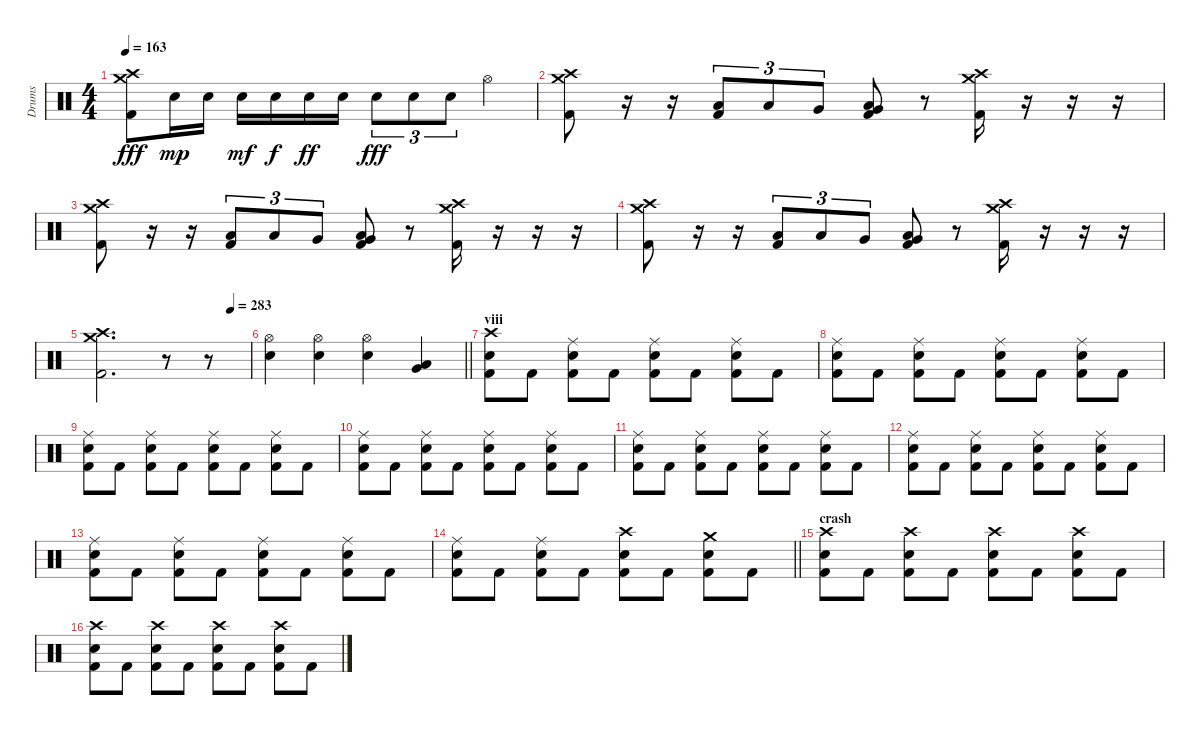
\track ("Drums" "Drums") {instrument percussion}
\staff {score}
\articulation defaults
\ts (4 4)
\tempo 163
\clef neutral
\ks c
("Crash high (hit)" "Crash medium (hit)" "Kick (hit) 2").8{dy fff} "Electric Snare (hit)".16{dy mp} "Electric Snare (hit)".16 "Electric Snare (hit)".16{dy mf} "Electric Snare (hit)".16{dy f} "Electric Snare (hit)".16{dy ff} "Electric Snare (hit)".16 "Electric Snare (hit)".8{tu (3 2) dy fff} "Electric Snare (hit)".8{tu (3 2)} "Electric Snare (hit)".8{tu (3 2)} "Hi-Hat (open)".4 |
("Crash high (hit)" "Crash medium (hit)" "Kick (hit) 2").8 r.16 r.16 ("Low Tom (hit)" "Kick (hit) 2").8{tu (3 2)} "Low Tom (hit)".8{tu (3 2)} "Very Low Tom (hit)".8{tu (3 2)} ("Low Floor Tom (hit)" "Very Low Tom (hit)" "Kick (hit) 2").8 r.8 ("Crash high (hit)" "Crash medium (hit)" "Kick (hit) 2").16 r.16 r.16 r.16 |
("Crash high (hit)" "Crash medium (hit)" "Kick (hit) 2").8 r.16 r.16 ("Low Tom (hit)" "Kick (hit) 2").8{tu (3 2)} "Low Tom (hit)".8{tu (3 2)} "Very Low Tom (hit)".8{tu (3 2)} ("Low Floor Tom (hit)" "Very Low Tom (hit)" "Kick (hit) 2").8 r.8 ("Crash high (hit)" "Crash medium (hit)" "Kick (hit) 2").16 r.16 r.16 r.16 |
("Crash high (hit)" "Crash medium (hit)" "Kick (hit) 2").8 r.16 r.16 ("Low Tom (hit)" "Kick (hit) 2").8{tu (3 2)} "Low Tom (hit)".8{tu (3 2)} "Very Low Tom (hit)".8{tu (3 2)} ("Low Floor Tom (hit)" "Very Low Tom (hit)" "Kick (hit) 2").8 r.8 ("Crash high (hit)" "Crash medium (hit)" "Kick (hit) 2").16 r.16 r.16 r.16 |
\tempo (283 0.875)
("Crash high (hit)" "Crash medium (hit)" "Kick (hit) 2").2{d} r.8 r.8 |
\barLineRight lightlight
("Hi-Hat (open)" "Electric Snare (hit)").4 ("Hi-Hat (open)" "Electric Snare (hit)").4 ("Hi-Hat (open)" "Electric Snare (hit)").4 ("Low Tom (hit)" "Very Low Tom (hit)").4 |
\section ("" "viii")
("Crash high (hit)" "Electric Snare (hit)" "Kick (hit) 2").8 "Kick (hit) 2".8 ("Ride (middle)" "Electric Snare (hit)" "Kick (hit) 2").8 "Kick (hit) 2".8 ("Ride (middle)" "Electric Snare (hit)" "Kick (hit) 2").8 "Kick (hit) 2".8 ("Ride (middle)" "Electric Snare (hit)" "Kick (hit) 2").8 "Kick (hit) 2".8 |
("Ride (middle)" "Electric Snare (hit)" "Kick (hit) 2").8 "Kick (hit) 2".8 ("Ride (middle)" "Electric Snare (hit)" "Kick (hit) 2").8 "Kick (hit) 2".8 ("Ride (middle)" "Electric Snare (hit)" "Kick (hit) 2").8 "Kick (hit) 2".8 ("Ride (middle)" "Electric Snare (hit)" "Kick (hit) 2").8 "Kick (hit) 2".8 |
("Ride (middle)" "Electric Snare (hit)" "Kick (hit) 2").8 "Kick (hit) 2".8 ("Ride (middle)" "Electric Snare (hit)" "Kick (hit) 2").8 "Kick (hit) 2".8 ("Ride (middle)" "Electric Snare (hit)" "Kick (hit) 2").8 "Kick (hit) 2".8 ("Ride (middle)" "Electric Snare (hit)" "Kick (hit) 2").8 "Kick (hit) 2".8 |
("Ride (middle)" "Electric Snare (hit)" "Kick (hit) 2").8 "Kick (hit) 2".8 ("Ride (middle)" "Electric Snare (hit)" "Kick (hit) 2").8 "Kick (hit) 2".8 ("Ride (middle)" "Electric Snare (hit)" "Kick (hit) 2").8 "Kick (hit) 2".8 ("Ride (middle)" "Electric Snare (hit)" "Kick (hit) 2").8 "Kick (hit) 2".8 |
("Ride (middle)" "Electric Snare (hit)" "Kick (hit) 2").8 "Kick (hit) 2".8 ("Ride (middle)" "Electric Snare (hit)" "Kick (hit) 2").8 "Kick (hit) 2".8 ("Ride (middle)" "Electric Snare (hit)" "Kick (hit) 2").8 "Kick (hit) 2".8 ("Ride (middle)" "Electric Snare (hit)" "Kick (hit) 2").8 "Kick (hit) 2".8 |
("Ride (middle)" "Electric Snare (hit)" "Kick (hit) 2").8 "Kick (hit) 2".8 ("Ride (middle)" "Electric Snare (hit)" "Kick (hit) 2").8 "Kick (hit) 2".8 ("Ride (middle)" "Electric Snare (hit)" "Kick (hit) 2").8 "Kick (hit) 2".8 ("Ride (middle)" "Electric Snare (hit)" "Kick (hit) 2").8 "Kick (hit) 2".8 |
("Ride (middle)" "Electric Snare (hit)" "Kick (hit) 2").8 "Kick (hit) 2".8 ("Ride (middle)" "Electric Snare (hit)" "Kick (hit) 2").8 "Kick (hit) 2".8 ("Ride (middle)" "Electric Snare (hit)" "Kick (hit) 2").8 "Kick (hit) 2".8 ("Ride (middle)" "Electric Snare (hit)" "Kick (hit) 2").8 "Kick (hit) 2".8 |
\barLineRight lightlight
("Ride (middle)" "Electric Snare (hit)" "Kick (hit) 2").8 "Kick (hit) 2".8 ("Ride (middle)" "Electric Snare (hit)" "Kick (hit) 2").8 "Kick (hit) 2".8 ("Crash high (hit)" "Electric Snare (hit)" "Kick (hit) 2").8 "Kick (hit) 2".8 ("Crash medium (hit)" "Electric Snare (hit)" "Kick (hit) 2").8 "Kick (hit) 2".8 |
\section ("" "crash")
("Crash high (hit)" "Electric Snare (hit)" "Kick (hit) 2").8 "Kick (hit) 2".8 ("Crash high (hit)" "Electric Snare (hit)" "Kick (hit) 2").8 "Kick (hit) 2".8 ("Crash high (hit)" "Electric Snare (hit)" "Kick (hit) 2").8 "Kick (hit) 2".8 ("Crash high (hit)" "Electric Snare (hit)" "Kick (hit) 2").8 "Kick (hit) 2".8 |
("Crash high (hit)" "Electric Snare (hit)" "Kick (hit) 2").8 "Kick (hit) 2".8 ("Crash high (hit)" "Electric Snare (hit)" "Kick (hit) 2").8 "Kick (hit) 2".8 ("Crash high (hit)" "Electric Snare (hit)" "Kick (hit) 2").8 "Kick (hit) 2".8 ("Crash high (hit)" "Electric Snare (hit)" "Kick (hit) 2").8 "Kick (hit) 2".8
